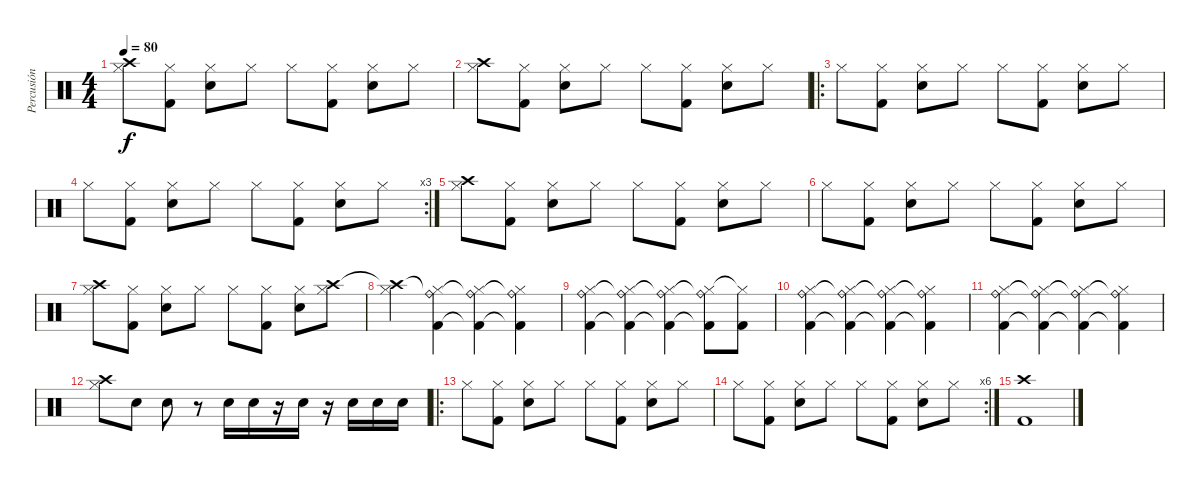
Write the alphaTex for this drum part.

\track ("Percusión (J@vier MoLin@)" "Percusión ") {instrument percussion}
\staff {score}
\articulation defaults
\ts (4 4)
\tempo 80
\clef neutral
\ks c
("Hi-Hat (closed)" "Crash high (hit)").8{dy f} ("Hi-Hat (closed)" "Kick (hit) 2").8 ("Hi-Hat (closed)" "Snare (hit) 2").8 "Hi-Hat (closed)".8 "Hi-Hat (closed)".8 ("Hi-Hat (closed)" "Kick (hit) 2").8 ("Hi-Hat (closed)" "Snare (hit) 2").8 "Hi-Hat (closed)".8 |
("Hi-Hat (closed)" "Crash high (hit)").8 ("Hi-Hat (closed)" "Kick (hit) 2").8 ("Hi-Hat (closed)" "Snare (hit) 2").8 "Hi-Hat (closed)".8 "Hi-Hat (closed)".8 ("Hi-Hat (closed)" "Kick (hit) 2").8 ("Hi-Hat (closed)" "Snare (hit) 2").8 "Hi-Hat (closed)".8 |
\ro "Hi-Hat (closed)".8
("Hi-Hat (closed)" "Kick (hit) 2").8 ("Hi-Hat (closed)" "Snare (hit) 2").8 "Hi-Hat (closed)".8 "Hi-Hat (closed)".8 ("Hi-Hat (closed)" "Kick (hit) 2").8 ("Hi-Hat (closed)" "Snare (hit) 2").8 "Hi-Hat (closed)".8 |
\rc 3 "Hi-Hat (closed)".8
("Hi-Hat (closed)" "Kick (hit) 2").8 ("Hi-Hat (closed)" "Snare (hit) 2").8 "Hi-Hat (closed)".8 "Hi-Hat (closed)".8 ("Hi-Hat (closed)" "Kick (hit) 2").8 ("Hi-Hat (closed)" "Snare (hit) 2").8 "Hi-Hat (closed)".8 |
("Hi-Hat (closed)" "Crash high (hit)").8 ("Hi-Hat (closed)" "Kick (hit) 2").8 ("Hi-Hat (closed)" "Snare (hit) 2").8 "Hi-Hat (closed)".8 "Hi-Hat (closed)".8 ("Hi-Hat (closed)" "Kick (hit) 2").8 ("Hi-Hat (closed)" "Snare (hit) 2").8 "Hi-Hat (closed)".8 |
"Hi-Hat (closed)".8 ("Hi-Hat (closed)" "Kick (hit) 2").8 ("Hi-Hat (closed)" "Snare (hit) 2").8 "Hi-Hat (closed)".8 "Hi-Hat (closed)".8 ("Hi-Hat (closed)" "Kick (hit) 2").8 ("Hi-Hat (closed)" "Snare (hit) 2").8 "Hi-Hat (closed)".8 |
("Hi-Hat (closed)" "Crash high (hit)").8 ("Hi-Hat (closed)" "Kick (hit) 2").8 ("Hi-Hat (closed)" "Snare (hit) 2").8 "Hi-Hat (closed)".8 "Hi-Hat (closed)".8 ("Hi-Hat (closed)" "Kick (hit) 2").8 ("Hi-Hat (closed)" "Snare (hit) 2").8 ("Hi-Hat (closed)" "Crash high (hit)").8 |
("Hi-Hat (closed)" "Crash high (hit)"{t}).4 ("Hi-Hat (closed)" "Ride (bell)"{t} "Kick (hit) 2").4 ("Hi-Hat (closed)" "Ride (bell)"{t} "Kick (hit) 2"{t}).4 ("Hi-Hat (closed)" "Ride (bell)"{t} "Kick (hit) 2"{t}).4 |
("Hi-Hat (closed)" "Ride (bell)" "Kick (hit) 2").4 ("Hi-Hat (closed)" "Ride (bell)"{t} "Kick (hit) 2"{t}).4 ("Hi-Hat (closed)" "Ride (bell)"{t} "Kick (hit) 2"{t}).4 ("Hi-Hat (closed)" "Ride (bell)"{t} "Kick (hit) 2"{t}).8 ("Hi-Hat (closed)"{t} "Kick (hit) 2").8 |
("Hi-Hat (closed)" "Ride (bell)" "Kick (hit) 2").4 ("Hi-Hat (closed)" "Ride (bell)"{t} "Kick (hit) 2"{t}).4 ("Hi-Hat (closed)" "Ride (bell)"{t} "Kick (hit) 2"{t}).4 ("Hi-Hat (closed)" "Ride (bell)"{t} "Kick (hit) 2"{t}).4 |
("Hi-Hat (closed)" "Ride (bell)" "Kick (hit) 2").4 ("Hi-Hat (closed)" "Ride (bell)"{t} "Kick (hit) 2"{t}).4 ("Hi-Hat (closed)" "Ride (bell)"{t} "Kick (hit) 2"{t}).4 ("Hi-Hat (closed)" "Ride (bell)"{t} "Kick (hit) 2"{t}).4 |
("Hi-Hat (closed)" "Crash high (hit)").8 "Snare (hit) 2".8 "Snare (hit) 2".8 r.8 "Snare (hit) 2".16 "Snare (hit) 2".16 r.16 "Snare (hit) 2".16 r.16 "Snare (hit) 2".16 "Snare (hit) 2".16 "Snare (hit) 2".16 |
\ro "Hi-Hat (closed)".8
("Hi-Hat (closed)" "Kick (hit) 2").8 ("Hi-Hat (closed)" "Snare (hit) 2").8 "Hi-Hat (closed)".8 "Hi-Hat (closed)".8 ("Hi-Hat (closed)" "Kick (hit) 2").8 ("Hi-Hat (closed)" "Snare (hit) 2").8 "Hi-Hat (closed)".8 |
\rc 6 "Hi-Hat (closed)".8
("Hi-Hat (closed)" "Kick (hit) 2").8 ("Hi-Hat (closed)" "Snare (hit) 2").8 "Hi-Hat (closed)".8 "Hi-Hat (closed)".8 ("Hi-Hat (closed)" "Kick (hit) 2").8 ("Hi-Hat (closed)" "Snare (hit) 2").8 "Hi-Hat (closed)".8 |
("Crash high (hit)" "Kick (hit) 2").1
